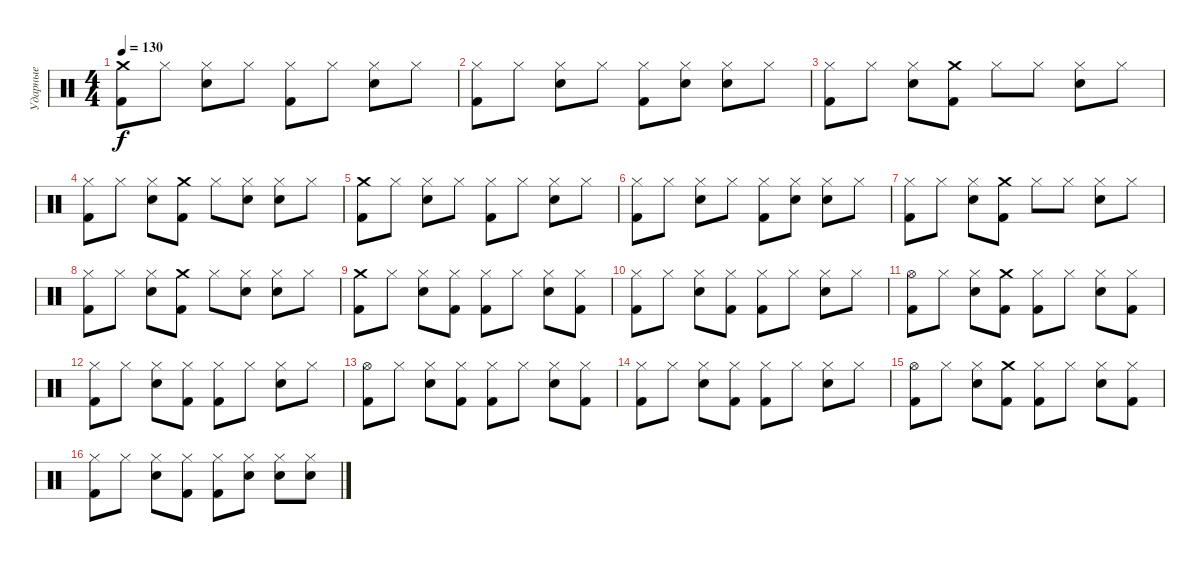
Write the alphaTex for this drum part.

\track ("Ударные" "Ударные") {instrument percussion}
\staff {score}
\articulation defaults
\ts (4 4)
\tempo 130
\clef neutral
\ks c
("Crash medium (hit)" "Kick (hit) 2").8{dy f} "Hi-Hat (closed)".8 ("Hi-Hat (closed)" "Snare (hit) 2").8 "Hi-Hat (closed)".8 ("Hi-Hat (closed)" "Kick (hit) 2").8 "Hi-Hat (closed)".8 ("Hi-Hat (closed)" "Snare (hit) 2").8 "Hi-Hat (closed)".8 |
("Hi-Hat (closed)" "Kick (hit) 2").8 "Hi-Hat (closed)".8 ("Hi-Hat (closed)" "Snare (hit) 2").8 "Hi-Hat (closed)".8 ("Hi-Hat (closed)" "Kick (hit) 2").8 ("Hi-Hat (closed)" "Snare (hit) 2").8 ("Hi-Hat (closed)" "Snare (hit) 2").8 "Hi-Hat (closed)".8 |
("Hi-Hat (closed)" "Kick (hit) 2").8 "Hi-Hat (closed)".8 ("Hi-Hat (closed)" "Snare (hit) 2").8 ("Crash medium (hit)" "Kick (hit) 2").8 "Hi-Hat (closed)".8 "Hi-Hat (closed)".8 ("Hi-Hat (closed)" "Snare (hit) 2").8 "Hi-Hat (closed)".8 |
("Hi-Hat (closed)" "Kick (hit) 2").8 "Hi-Hat (closed)".8 ("Hi-Hat (closed)" "Snare (hit) 2").8 ("Crash medium (hit)" "Kick (hit) 2").8 "Hi-Hat (closed)".8 ("Hi-Hat (closed)" "Snare (hit) 2").8 ("Hi-Hat (closed)" "Snare (hit) 2").8 "Hi-Hat (closed)".8 |
("Crash medium (hit)" "Kick (hit) 2").8 "Hi-Hat (closed)".8 ("Hi-Hat (closed)" "Snare (hit) 2").8 "Hi-Hat (closed)".8 ("Hi-Hat (closed)" "Kick (hit) 2").8 "Hi-Hat (closed)".8 ("Hi-Hat (closed)" "Snare (hit) 2").8 "Hi-Hat (closed)".8 |
("Hi-Hat (closed)" "Kick (hit) 2").8 "Hi-Hat (closed)".8 ("Hi-Hat (closed)" "Snare (hit) 2").8 "Hi-Hat (closed)".8 ("Hi-Hat (closed)" "Kick (hit) 2").8 ("Hi-Hat (closed)" "Snare (hit) 2").8 ("Hi-Hat (closed)" "Snare (hit) 2").8 "Hi-Hat (closed)".8 |
("Hi-Hat (closed)" "Kick (hit) 2").8 "Hi-Hat (closed)".8 ("Hi-Hat (closed)" "Snare (hit) 2").8 ("Crash medium (hit)" "Kick (hit) 2").8 "Hi-Hat (closed)".8 "Hi-Hat (closed)".8 ("Hi-Hat (closed)" "Snare (hit) 2").8 "Hi-Hat (closed)".8 |
("Hi-Hat (closed)" "Kick (hit) 2").8 "Hi-Hat (closed)".8 ("Hi-Hat (closed)" "Snare (hit) 2").8 ("Crash medium (hit)" "Kick (hit) 2").8 "Hi-Hat (closed)".8 ("Hi-Hat (closed)" "Snare (hit) 2").8 ("Hi-Hat (closed)" "Snare (hit) 2").8 "Hi-Hat (closed)".8 |
("Crash medium (hit)" "Kick (hit) 2").8 "Hi-Hat (closed)".8 ("Hi-Hat (closed)" "Snare (hit) 2").8 ("Hi-Hat (closed)" "Kick (hit) 2").8 ("Hi-Hat (closed)" "Kick (hit) 2").8 "Hi-Hat (closed)".8 ("Hi-Hat (closed)" "Snare (hit) 2").8 ("Hi-Hat (closed)" "Kick (hit) 2").8 |
("Hi-Hat (closed)" "Kick (hit) 2").8 "Hi-Hat (closed)".8 ("Hi-Hat (closed)" "Snare (hit) 2").8 ("Hi-Hat (closed)" "Kick (hit) 2").8 ("Hi-Hat (closed)" "Kick (hit) 2").8 "Hi-Hat (closed)".8 ("Hi-Hat (closed)" "Snare (hit) 2").8 "Hi-Hat (closed)".8 |
("Hi-Hat (open)" "Kick (hit) 2").8 "Hi-Hat (closed)".8 ("Hi-Hat (closed)" "Snare (hit) 2").8 ("Crash medium (hit)" "Kick (hit) 2").8 ("Hi-Hat (closed)" "Kick (hit) 2").8 "Hi-Hat (closed)".8 ("Hi-Hat (closed)" "Snare (hit) 2").8 ("Hi-Hat (closed)" "Kick (hit) 2").8 |
("Hi-Hat (closed)" "Kick (hit) 2").8 "Hi-Hat (closed)".8 ("Hi-Hat (closed)" "Snare (hit) 2").8 ("Hi-Hat (closed)" "Kick (hit) 2").8 ("Hi-Hat (closed)" "Kick (hit) 2").8 "Hi-Hat (closed)".8 ("Hi-Hat (closed)" "Snare (hit) 2").8 "Hi-Hat (closed)".8 |
("Hi-Hat (open)" "Kick (hit) 2").8 "Hi-Hat (closed)".8 ("Hi-Hat (closed)" "Snare (hit) 2").8 ("Hi-Hat (closed)" "Kick (hit) 2").8 ("Hi-Hat (closed)" "Kick (hit) 2").8 "Hi-Hat (closed)".8 ("Hi-Hat (closed)" "Snare (hit) 2").8 ("Hi-Hat (closed)" "Kick (hit) 2").8 |
("Hi-Hat (closed)" "Kick (hit) 2").8 "Hi-Hat (closed)".8 ("Hi-Hat (closed)" "Snare (hit) 2").8 ("Hi-Hat (closed)" "Kick (hit) 2").8 ("Hi-Hat (closed)" "Kick (hit) 2").8 "Hi-Hat (closed)".8 ("Hi-Hat (closed)" "Snare (hit) 2").8 "Hi-Hat (closed)".8 |
("Hi-Hat (open)" "Kick (hit) 2").8 "Hi-Hat (closed)".8 ("Hi-Hat (closed)" "Snare (hit) 2").8 ("Crash medium (hit)" "Kick (hit) 2").8 ("Hi-Hat (closed)" "Kick (hit) 2").8 "Hi-Hat (closed)".8 ("Hi-Hat (closed)" "Snare (hit) 2").8 ("Hi-Hat (closed)" "Kick (hit) 2").8 |
("Hi-Hat (closed)" "Kick (hit) 2").8 "Hi-Hat (closed)".8 ("Hi-Hat (closed)" "Snare (hit) 2").8 ("Hi-Hat (closed)" "Kick (hit) 2").8 ("Hi-Hat (closed)" "Kick (hit) 2").8 ("Hi-Hat (closed)" "Snare (hit) 2").8 ("Hi-Hat (closed)" "Snare (hit) 2").8 ("Hi-Hat (closed)" "Snare (hit) 2").8
